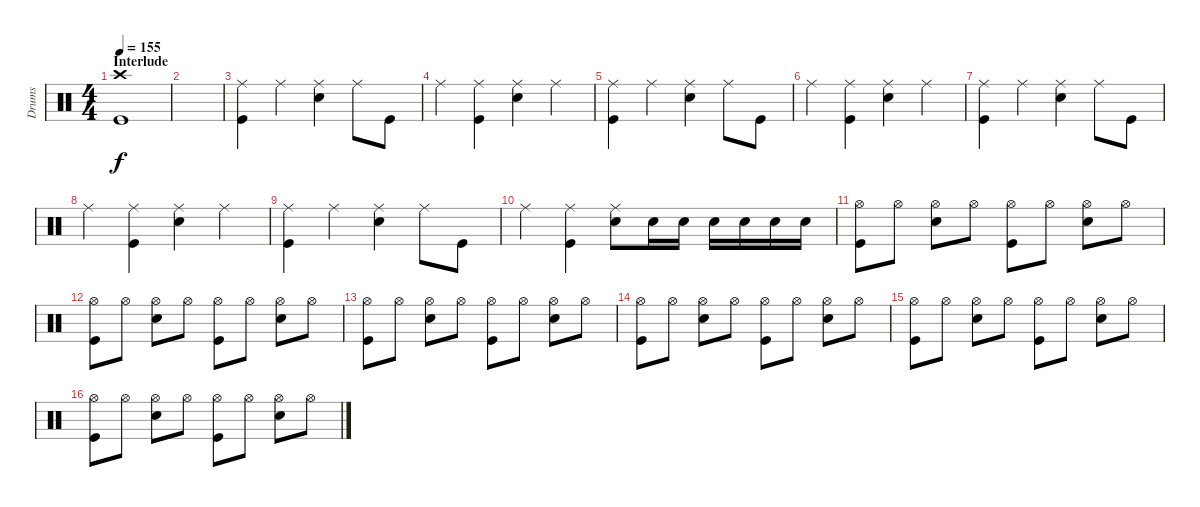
\track ("Drums" "Drums") {instrument percussion}
\staff {score}
\articulation defaults
\ts (4 4)
\section ("" "Interlude")
\tempo 155
\clef neutral
\ks c
("Crash high (hit)" "Kick (hit)").1{dy f} |
|
("Ride (middle)" "Kick (hit)").4 "Ride (middle)".4 ("Ride (middle)" "Snare (hit) 2").4 "Ride (middle)".8 "Kick (hit)".8 |
"Ride (middle)".4 ("Ride (middle)" "Kick (hit)").4 ("Ride (middle)" "Snare (hit) 2").4 "Ride (middle)".4 |
("Ride (middle)" "Kick (hit)").4 "Ride (middle)".4 ("Ride (middle)" "Snare (hit) 2").4 "Ride (middle)".8 "Kick (hit)".8 |
"Ride (middle)".4 ("Ride (middle)" "Kick (hit)").4 ("Ride (middle)" "Snare (hit) 2").4 "Ride (middle)".4 |
("Ride (middle)" "Kick (hit)").4 "Ride (middle)".4 ("Ride (middle)" "Snare (hit) 2").4 "Ride (middle)".8 "Kick (hit)".8 |
"Ride (middle)".4 ("Ride (middle)" "Kick (hit)").4 ("Ride (middle)" "Snare (hit) 2").4 "Ride (middle)".4 |
("Ride (middle)" "Kick (hit)").4 "Ride (middle)".4 ("Ride (middle)" "Snare (hit) 2").4 "Ride (middle)".8 "Kick (hit)".8 |
"Ride (middle)".4 ("Ride (middle)" "Kick (hit)").4 ("Ride (middle)" "Snare (hit) 2").8 "Snare (hit) 2".16 "Snare (hit) 2".16 "Snare (hit) 2".16 "Snare (hit) 2".16 "Snare (hit) 2".16 "Snare (hit) 2".16 |
("Hi-Hat (open)" "Kick (hit)").8 "Hi-Hat (open)".8 ("Hi-Hat (open)" "Snare (hit) 2").8 "Hi-Hat (open)".8 ("Hi-Hat (open)" "Kick (hit)").8 "Hi-Hat (open)".8 ("Hi-Hat (open)" "Snare (hit) 2").8 "Hi-Hat (open)".8 |
("Hi-Hat (open)" "Kick (hit)").8 "Hi-Hat (open)".8 ("Hi-Hat (open)" "Snare (hit) 2").8 "Hi-Hat (open)".8 ("Hi-Hat (open)" "Kick (hit)").8 "Hi-Hat (open)".8 ("Hi-Hat (open)" "Snare (hit) 2").8 "Hi-Hat (open)".8 |
("Hi-Hat (open)" "Kick (hit)").8 "Hi-Hat (open)".8 ("Hi-Hat (open)" "Snare (hit) 2").8 "Hi-Hat (open)".8 ("Hi-Hat (open)" "Kick (hit)").8 "Hi-Hat (open)".8 ("Hi-Hat (open)" "Snare (hit) 2").8 "Hi-Hat (open)".8 |
("Hi-Hat (open)" "Kick (hit)").8 "Hi-Hat (open)".8 ("Hi-Hat (open)" "Snare (hit) 2").8 "Hi-Hat (open)".8 ("Hi-Hat (open)" "Kick (hit)").8 "Hi-Hat (open)".8 ("Hi-Hat (open)" "Snare (hit) 2").8 "Hi-Hat (open)".8 |
("Hi-Hat (open)" "Kick (hit)").8 "Hi-Hat (open)".8 ("Hi-Hat (open)" "Snare (hit) 2").8 "Hi-Hat (open)".8 ("Hi-Hat (open)" "Kick (hit)").8 "Hi-Hat (open)".8 ("Hi-Hat (open)" "Snare (hit) 2").8 "Hi-Hat (open)".8 |
("Hi-Hat (open)" "Kick (hit)").8 "Hi-Hat (open)".8 ("Hi-Hat (open)" "Snare (hit) 2").8 "Hi-Hat (open)".8 ("Hi-Hat (open)" "Kick (hit)").8 "Hi-Hat (open)".8 ("Hi-Hat (open)" "Snare (hit) 2").8 "Hi-Hat (open)".8
